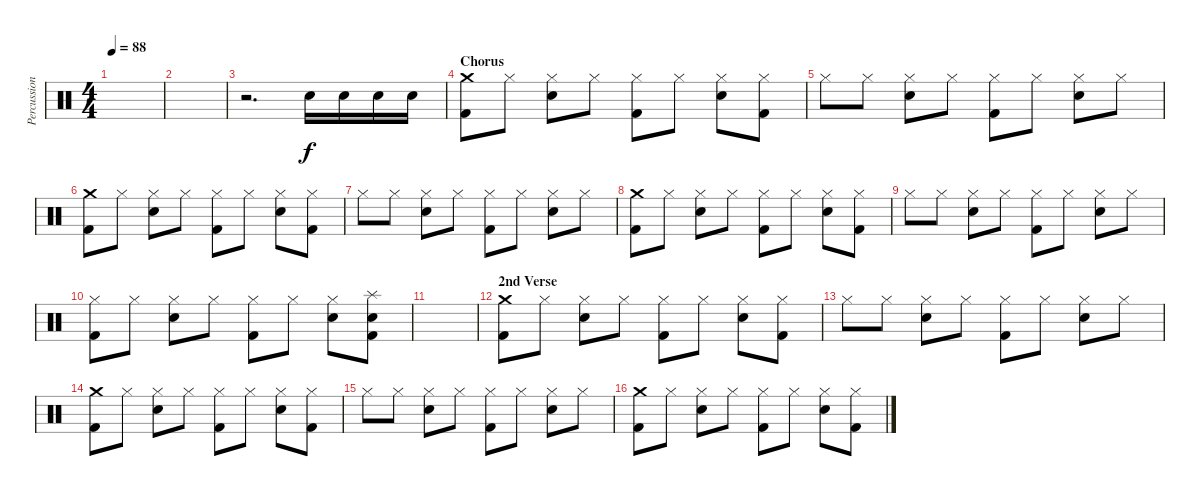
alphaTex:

\track ("Percussion" "Percussion") {instrument percussion}
\staff {score}
\articulation defaults
\ts (4 4)
\tempo 88
\clef neutral
\ks c
|
|
r.2{d} "Snare (hit) 2".16 "Snare (hit) 2".16 "Snare (hit) 2".16 "Snare (hit) 2".16 |
\section ("" "Chorus")
("Crash medium (hit)" "Kick (hit) 2").8 "Hi-Hat (closed)".8 ("Hi-Hat (closed)" "Snare (hit) 2").8 "Hi-Hat (closed)".8 ("Hi-Hat (closed)" "Kick (hit) 2").8 "Hi-Hat (closed)".8 ("Hi-Hat (closed)" "Snare (hit) 2").8 ("Hi-Hat (closed)" "Kick (hit) 2").8 |
"Hi-Hat (closed)".8 "Hi-Hat (closed)".8 ("Hi-Hat (closed)" "Snare (hit) 2").8 "Hi-Hat (closed)".8 ("Hi-Hat (closed)" "Kick (hit) 2").8 "Hi-Hat (closed)".8 ("Hi-Hat (closed)" "Snare (hit) 2").8 "Hi-Hat (closed)".8 |
("Crash medium (hit)" "Kick (hit) 2").8 "Hi-Hat (closed)".8 ("Hi-Hat (closed)" "Snare (hit) 2").8 "Hi-Hat (closed)".8 ("Hi-Hat (closed)" "Kick (hit) 2").8 "Hi-Hat (closed)".8 ("Hi-Hat (closed)" "Snare (hit) 2").8 ("Hi-Hat (closed)" "Kick (hit) 2").8 |
"Hi-Hat (closed)".8 "Hi-Hat (closed)".8 ("Hi-Hat (closed)" "Snare (hit) 2").8 "Hi-Hat (closed)".8 ("Hi-Hat (closed)" "Kick (hit) 2").8 "Hi-Hat (closed)".8 ("Hi-Hat (closed)" "Snare (hit) 2").8 "Hi-Hat (closed)".8 |
("Crash medium (hit)" "Kick (hit) 2").8 "Hi-Hat (closed)".8 ("Hi-Hat (closed)" "Snare (hit) 2").8 "Hi-Hat (closed)".8 ("Hi-Hat (closed)" "Kick (hit) 2").8 "Hi-Hat (closed)".8 ("Hi-Hat (closed)" "Snare (hit) 2").8 ("Hi-Hat (closed)" "Kick (hit) 2").8 |
"Hi-Hat (closed)".8 "Hi-Hat (closed)".8 ("Hi-Hat (closed)" "Snare (hit) 2").8 "Hi-Hat (closed)".8 ("Hi-Hat (closed)" "Kick (hit) 2").8 "Hi-Hat (closed)".8 ("Hi-Hat (closed)" "Snare (hit) 2").8 "Hi-Hat (closed)".8 |
("Hi-Hat (closed)" "Kick (hit) 2").8 "Hi-Hat (closed)".8 ("Hi-Hat (closed)" "Snare (hit) 2").8 "Hi-Hat (closed)".8 ("Hi-Hat (closed)" "Kick (hit) 2").8 "Hi-Hat (closed)".8 ("Hi-Hat (closed)" "Snare (hit) 2").8 ("Splash (hit)" "Snare (hit) 2" "Kick (hit) 2").8 |
|
\section ("" "2nd Verse")
("Crash medium (hit)" "Kick (hit) 2").8 "Hi-Hat (closed)".8 ("Hi-Hat (closed)" "Snare (hit) 2").8 "Hi-Hat (closed)".8 ("Hi-Hat (closed)" "Kick (hit) 2").8 "Hi-Hat (closed)".8 ("Hi-Hat (closed)" "Snare (hit) 2").8 ("Hi-Hat (closed)" "Kick (hit) 2").8 |
"Hi-Hat (closed)".8 "Hi-Hat (closed)".8 ("Hi-Hat (closed)" "Snare (hit) 2").8 "Hi-Hat (closed)".8 ("Hi-Hat (closed)" "Kick (hit) 2").8 "Hi-Hat (closed)".8 ("Hi-Hat (closed)" "Snare (hit) 2").8 "Hi-Hat (closed)".8 |
("Crash medium (hit)" "Kick (hit) 2").8 "Hi-Hat (closed)".8 ("Hi-Hat (closed)" "Snare (hit) 2").8 "Hi-Hat (closed)".8 ("Hi-Hat (closed)" "Kick (hit) 2").8 "Hi-Hat (closed)".8 ("Hi-Hat (closed)" "Snare (hit) 2").8 ("Hi-Hat (closed)" "Kick (hit) 2").8 |
"Hi-Hat (closed)".8 "Hi-Hat (closed)".8 ("Hi-Hat (closed)" "Snare (hit) 2").8 "Hi-Hat (closed)".8 ("Hi-Hat (closed)" "Kick (hit) 2").8 "Hi-Hat (closed)".8 ("Hi-Hat (closed)" "Snare (hit) 2").8 "Hi-Hat (closed)".8 |
("Crash medium (hit)" "Kick (hit) 2").8 "Hi-Hat (closed)".8 ("Hi-Hat (closed)" "Snare (hit) 2").8 "Hi-Hat (closed)".8 ("Hi-Hat (closed)" "Kick (hit) 2").8 "Hi-Hat (closed)".8 ("Hi-Hat (closed)" "Snare (hit) 2").8 ("Hi-Hat (closed)" "Kick (hit) 2").8
